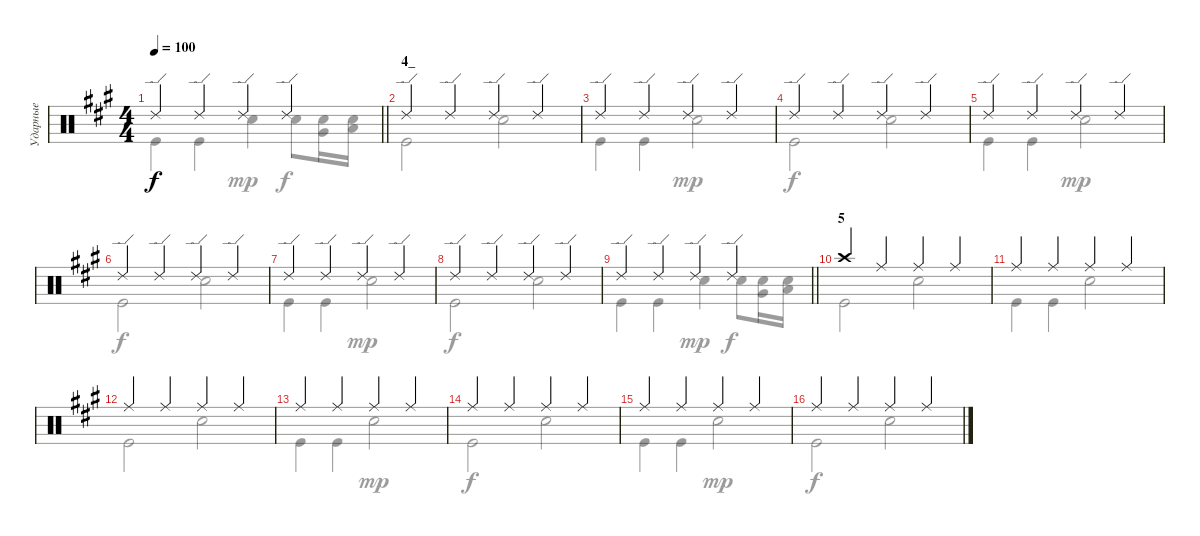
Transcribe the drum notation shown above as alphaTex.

\track ("Ударные" "Ударные") {instrument percussion}
\staff {score}
\articulation defaults
\voice
\ts (4 4)
\tempo 100
\clef neutral
\barLineRight lightlight
\ks f#minor "Ride (edge) 2".4{dy f} "Ride (edge) 2".4 "Ride (edge) 2".4 "Ride (edge) 2".4
|
\section ("" "4_")
"Ride (edge) 2".4 "Ride (edge) 2".4 "Ride (edge) 2".4 "Ride (edge) 2".4 |
"Ride (edge) 2".4 "Ride (edge) 2".4 "Ride (edge) 2".4 "Ride (edge) 2".4 |
"Ride (edge) 2".4 "Ride (edge) 2".4 "Ride (edge) 2".4 "Ride (edge) 2".4 |
"Ride (edge) 2".4 "Ride (edge) 2".4 "Ride (edge) 2".4 "Ride (edge) 2".4 |
"Ride (edge) 2".4 "Ride (edge) 2".4 "Ride (edge) 2".4 "Ride (edge) 2".4 |
"Ride (edge) 2".4 "Ride (edge) 2".4 "Ride (edge) 2".4 "Ride (edge) 2".4 |
"Ride (edge) 2".4 "Ride (edge) 2".4 "Ride (edge) 2".4 "Ride (edge) 2".4 |
\barLineRight lightlight "Ride (edge) 2".4 "Ride (edge) 2".4 "Ride (edge) 2".4 "Ride (edge) 2".4
|
\section ("" "5")
"Crash high (hit)".4 "Ride (middle)".4 "Ride (middle)".4 "Ride (middle)".4 |
"Ride (middle)".4 "Ride (middle)".4 "Ride (middle)".4 "Ride (middle)".4 |
"Ride (middle)".4 "Ride (middle)".4 "Ride (middle)".4 "Ride (middle)".4 |
"Ride (middle)".4 "Ride (middle)".4 "Ride (middle)".4 "Ride (middle)".4 |
"Ride (middle)".4 "Ride (middle)".4 "Ride (middle)".4 "Ride (middle)".4 |
"Ride (middle)".4 "Ride (middle)".4 "Ride (middle)".4 "Ride (middle)".4 |
"Ride (middle)".4 "Ride (middle)".4 "Ride (middle)".4 "Ride (middle)".4
\voice
\clef neutral
\ottava regular
\simile none
\barLineRight lightlight
\ks f#minor "Kick (hit)".4{dy f} "Kick (hit)".4 "Snare (hit) 2".4{dy mp} "Snare (hit) 2".8{dy f}
("Snare (hit) 2" "Very Low Tom (hit)").16 ("Snare (hit) 2" "Low Floor Tom (hit)").16 |
"Kick (hit)".2 "Snare (hit) 2".2 |
"Kick (hit)".4 "Kick (hit)".4 "Snare (hit) 2".2{dy mp} |
"Kick (hit)".2{dy f} "Snare (hit) 2".2 |
"Kick (hit)".4 "Kick (hit)".4 "Snare (hit) 2".2{dy mp} |
"Kick (hit)".2{dy f} "Snare (hit) 2".2 |
"Kick (hit)".4 "Kick (hit)".4 "Snare (hit) 2".2{dy mp} |
"Kick (hit)".2{dy f} "Snare (hit) 2".2 |
\barLineRight lightlight "Kick (hit)".4 "Kick (hit)".4 "Snare (hit) 2".4{dy mp} "Snare (hit) 2".8{dy f}
("Snare (hit) 2" "Very Low Tom (hit)").16 ("Snare (hit) 2" "Low Floor Tom (hit)").16 |
"Kick (hit)".2 "Snare (hit) 2".2 |
"Kick (hit)".4 "Kick (hit)".4 "Snare (hit) 2".2 |
"Kick (hit)".2 "Snare (hit) 2".2 |
"Kick (hit)".4 "Kick (hit)".4 "Snare (hit) 2".2{dy mp} |
"Kick (hit)".2{dy f} "Snare (hit) 2".2 |
"Kick (hit)".4 "Kick (hit)".4 "Snare (hit) 2".2{dy mp} |
"Kick (hit)".2{dy f} "Snare (hit) 2".2
